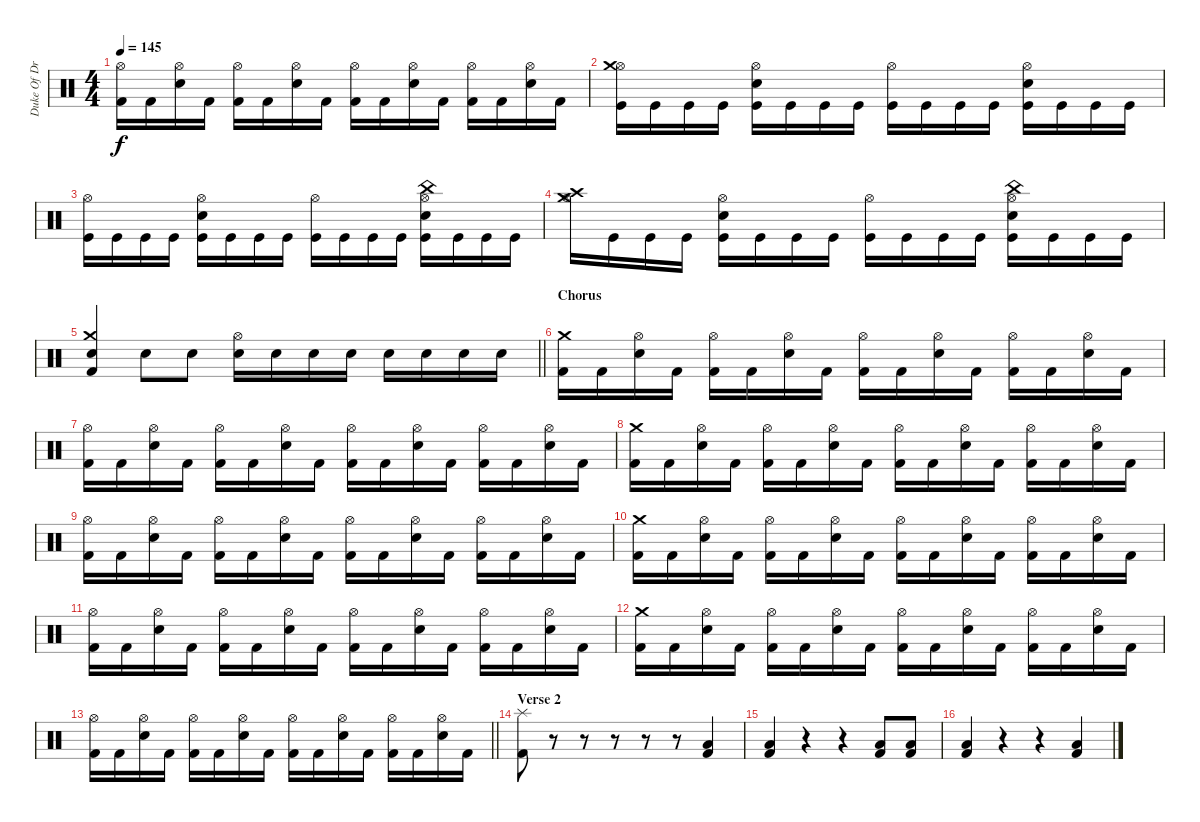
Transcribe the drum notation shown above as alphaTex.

\track ("Duke Of Drumington" "Duke Of Dr") {instrument percussion}
\staff {score}
\articulation defaults
\ts (4 4)
\tempo 145
\clef neutral
\ks c
("Kick (hit) 2" "Hi-Hat (open)").16{dy f} "Kick (hit) 2".16 ("Snare (hit) 2" "Hi-Hat (open)").16 "Kick (hit) 2".16 ("Kick (hit) 2" "Hi-Hat (open)").16 "Kick (hit) 2".16 ("Snare (hit) 2" "Hi-Hat (open)").16 "Kick (hit) 2".16 ("Kick (hit) 2" "Hi-Hat (open)").16 "Kick (hit) 2".16 ("Snare (hit) 2" "Hi-Hat (open)").16 "Kick (hit) 2".16 ("Kick (hit) 2" "Hi-Hat (open)").16 "Kick (hit) 2".16 ("Snare (hit) 2" "Hi-Hat (open)").16 "Kick (hit) 2".16 |
("Kick (hit)" "Hi-Hat (open)" "Crash medium (hit)").16 "Kick (hit)".16 "Kick (hit)".16 "Kick (hit)".16 ("Kick (hit)" "Hi-Hat (open)" "Electric Snare (hit)").16 "Kick (hit)".16 "Kick (hit)".16 "Kick (hit)".16 ("Kick (hit)" "Hi-Hat (open)").16 "Kick (hit)".16 "Kick (hit)".16 "Kick (hit)".16 ("Kick (hit)" "Hi-Hat (open)" "Electric Snare (hit)").16 "Kick (hit)".16 "Kick (hit)".16 "Kick (hit)".16 |
("Kick (hit)" "Hi-Hat (open)").16 "Kick (hit)".16 "Kick (hit)".16 "Kick (hit)".16 ("Kick (hit)" "Hi-Hat (open)" "Electric Snare (hit)").16 "Kick (hit)".16 "Kick (hit)".16 "Kick (hit)".16 ("Kick (hit)" "Hi-Hat (open)").16 "Kick (hit)".16 "Kick (hit)".16 "Kick (hit)".16 ("Kick (hit)" "Hi-Hat (open)" "Electric Snare (hit)" "China (hit)").16 "Kick (hit)".16 "Kick (hit)".16 "Kick (hit)".16 |
("Crash high (hit)" "Hi-Hat (open)" "Crash medium (hit)").16 "Kick (hit)".16 "Kick (hit)".16 "Kick (hit)".16 ("Kick (hit)" "Hi-Hat (open)" "Electric Snare (hit)").16 "Kick (hit)".16 "Kick (hit)".16 "Kick (hit)".16 ("Kick (hit)" "Hi-Hat (open)").16 "Kick (hit)".16 "Kick (hit)".16 "Kick (hit)".16 ("Kick (hit)" "Hi-Hat (open)" "Electric Snare (hit)" "China (hit)").16 "Kick (hit)".16 "Kick (hit)".16 "Kick (hit)".16 |
\barLineRight lightlight
("Electric Snare (hit)" "Kick (hit) 2" "Crash medium (hit)").4 "Electric Snare (hit)".8 "Electric Snare (hit)".8 ("Electric Snare (hit)" "Hi-Hat (open)").16 "Electric Snare (hit)".16 "Electric Snare (hit)".16 "Electric Snare (hit)".16 "Electric Snare (hit)".16 "Electric Snare (hit)".16 "Electric Snare (hit)".16 "Electric Snare (hit)".16 |
\section ("" "Chorus")
("Kick (hit) 2" "Crash medium (hit)").16 "Kick (hit) 2".16 ("Snare (hit) 2" "Hi-Hat (open)").16 "Kick (hit) 2".16 ("Kick (hit) 2" "Hi-Hat (open)").16 "Kick (hit) 2".16 ("Snare (hit) 2" "Hi-Hat (open)").16 "Kick (hit) 2".16 ("Kick (hit) 2" "Hi-Hat (open)").16 "Kick (hit) 2".16 ("Snare (hit) 2" "Hi-Hat (open)").16 "Kick (hit) 2".16 ("Kick (hit) 2" "Hi-Hat (open)").16 "Kick (hit) 2".16 ("Snare (hit) 2" "Hi-Hat (open)").16 "Kick (hit) 2".16 |
("Kick (hit) 2" "Hi-Hat (open)").16 "Kick (hit) 2".16 ("Snare (hit) 2" "Hi-Hat (open)").16 "Kick (hit) 2".16 ("Kick (hit) 2" "Hi-Hat (open)").16 "Kick (hit) 2".16 ("Snare (hit) 2" "Hi-Hat (open)").16 "Kick (hit) 2".16 ("Kick (hit) 2" "Hi-Hat (open)").16 "Kick (hit) 2".16 ("Snare (hit) 2" "Hi-Hat (open)").16 "Kick (hit) 2".16 ("Kick (hit) 2" "Hi-Hat (open)").16 "Kick (hit) 2".16 ("Snare (hit) 2" "Hi-Hat (open)").16 "Kick (hit) 2".16 |
("Kick (hit) 2" "Crash medium (hit)").16 "Kick (hit) 2".16 ("Snare (hit) 2" "Hi-Hat (open)").16 "Kick (hit) 2".16 ("Kick (hit) 2" "Hi-Hat (open)").16 "Kick (hit) 2".16 ("Snare (hit) 2" "Hi-Hat (open)").16 "Kick (hit) 2".16 ("Kick (hit) 2" "Hi-Hat (open)").16 "Kick (hit) 2".16 ("Snare (hit) 2" "Hi-Hat (open)").16 "Kick (hit) 2".16 ("Kick (hit) 2" "Hi-Hat (open)").16 "Kick (hit) 2".16 ("Snare (hit) 2" "Hi-Hat (open)").16 "Kick (hit) 2".16 |
("Kick (hit) 2" "Hi-Hat (open)").16 "Kick (hit) 2".16 ("Snare (hit) 2" "Hi-Hat (open)").16 "Kick (hit) 2".16 ("Kick (hit) 2" "Hi-Hat (open)").16 "Kick (hit) 2".16 ("Snare (hit) 2" "Hi-Hat (open)").16 "Kick (hit) 2".16 ("Kick (hit) 2" "Hi-Hat (open)").16 "Kick (hit) 2".16 ("Snare (hit) 2" "Hi-Hat (open)").16 "Kick (hit) 2".16 ("Kick (hit) 2" "Hi-Hat (open)").16 "Kick (hit) 2".16 ("Snare (hit) 2" "Hi-Hat (open)").16 "Kick (hit) 2".16 |
("Kick (hit) 2" "Crash medium (hit)").16 "Kick (hit) 2".16 ("Snare (hit) 2" "Hi-Hat (open)").16 "Kick (hit) 2".16 ("Kick (hit) 2" "Hi-Hat (open)").16 "Kick (hit) 2".16 ("Snare (hit) 2" "Hi-Hat (open)").16 "Kick (hit) 2".16 ("Kick (hit) 2" "Hi-Hat (open)").16 "Kick (hit) 2".16 ("Snare (hit) 2" "Hi-Hat (open)").16 "Kick (hit) 2".16 ("Kick (hit) 2" "Hi-Hat (open)").16 "Kick (hit) 2".16 ("Snare (hit) 2" "Hi-Hat (open)").16 "Kick (hit) 2".16 |
("Kick (hit) 2" "Hi-Hat (open)").16 "Kick (hit) 2".16 ("Snare (hit) 2" "Hi-Hat (open)").16 "Kick (hit) 2".16 ("Kick (hit) 2" "Hi-Hat (open)").16 "Kick (hit) 2".16 ("Snare (hit) 2" "Hi-Hat (open)").16 "Kick (hit) 2".16 ("Kick (hit) 2" "Hi-Hat (open)").16 "Kick (hit) 2".16 ("Snare (hit) 2" "Hi-Hat (open)").16 "Kick (hit) 2".16 ("Kick (hit) 2" "Hi-Hat (open)").16 "Kick (hit) 2".16 ("Snare (hit) 2" "Hi-Hat (open)").16 "Kick (hit) 2".16 |
("Kick (hit) 2" "Crash medium (hit)").16 "Kick (hit) 2".16 ("Snare (hit) 2" "Hi-Hat (open)").16 "Kick (hit) 2".16 ("Kick (hit) 2" "Hi-Hat (open)").16 "Kick (hit) 2".16 ("Snare (hit) 2" "Hi-Hat (open)").16 "Kick (hit) 2".16 ("Kick (hit) 2" "Hi-Hat (open)").16 "Kick (hit) 2".16 ("Snare (hit) 2" "Hi-Hat (open)").16 "Kick (hit) 2".16 ("Kick (hit) 2" "Hi-Hat (open)").16 "Kick (hit) 2".16 ("Snare (hit) 2" "Hi-Hat (open)").16 "Kick (hit) 2".16 |
\barLineRight lightlight
("Kick (hit) 2" "Hi-Hat (open)").16 "Kick (hit) 2".16 ("Snare (hit) 2" "Hi-Hat (open)").16 "Kick (hit) 2".16 ("Kick (hit) 2" "Hi-Hat (open)").16 "Kick (hit) 2".16 ("Snare (hit) 2" "Hi-Hat (open)").16 "Kick (hit) 2".16 ("Kick (hit) 2" "Hi-Hat (open)").16 "Kick (hit) 2".16 ("Snare (hit) 2" "Hi-Hat (open)").16 "Kick (hit) 2".16 ("Kick (hit) 2" "Hi-Hat (open)").16 "Kick (hit) 2".16 ("Snare (hit) 2" "Hi-Hat (open)").16 "Kick (hit) 2".16 |
\section ("" "Verse 2")
("Splash (hit)" "Kick (hit) 2").8 r.8 r.8 r.8 r.8 r.8 ("Low Floor Tom (hit)" "Kick (hit) 2").4 |
("Low Floor Tom (hit)" "Kick (hit) 2").4 r.4 r.4 ("Low Floor Tom (hit)" "Kick (hit) 2").8 ("Low Floor Tom (hit)" "Kick (hit) 2").8 |
("Low Floor Tom (hit)" "Kick (hit) 2").4 r.4 r.4 ("Low Floor Tom (hit)" "Kick (hit) 2").4
